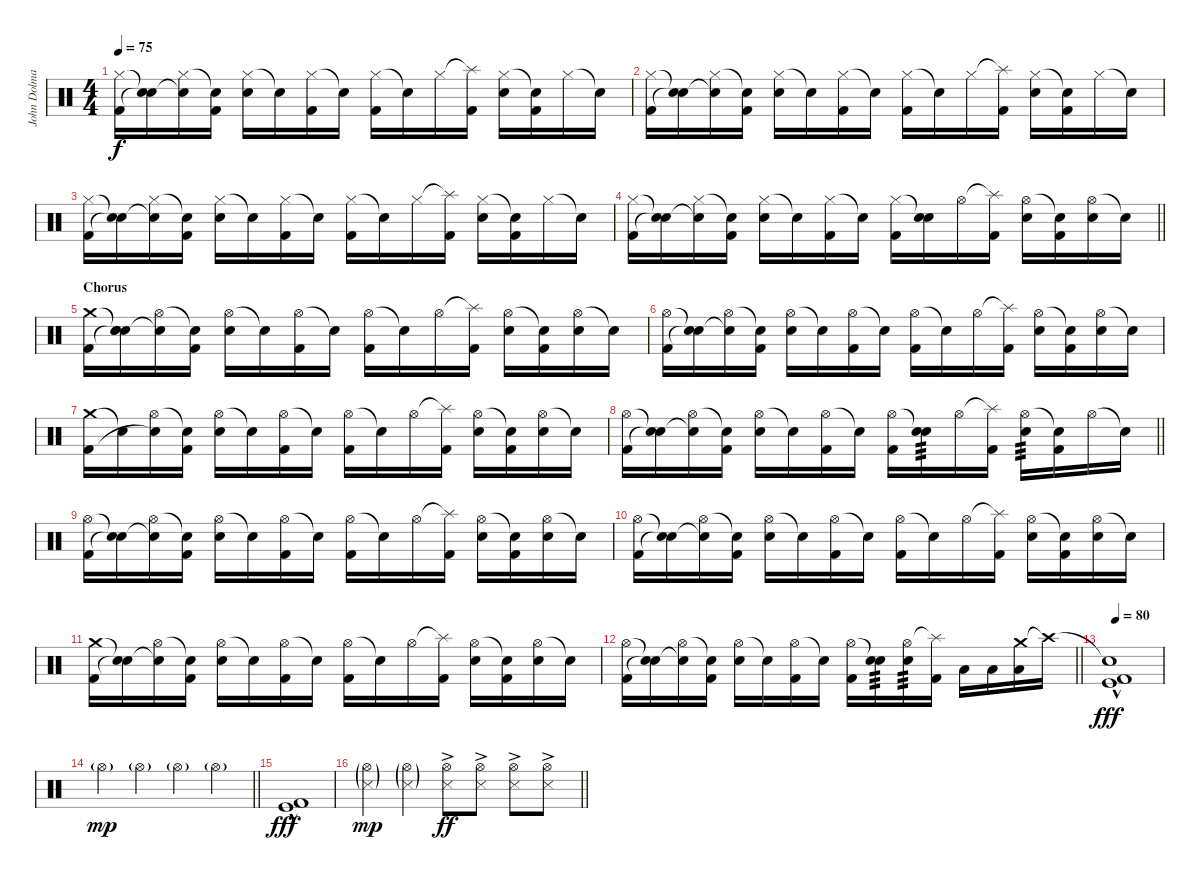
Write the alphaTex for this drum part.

\track ("John Dolmayan (drums)" "John Dolma") {instrument percussion}
\staff
\articulation defaults
\ts (4 4)
\tempo 75
\clef neutral
\ks c
("Hi-Hat (closed)" "Kick (hit) 2").16{dy f} ("Snare (hit)"{t} "Snare (hit)"{t}).16 ("Hi-Hat (closed)" "Snare (hit)"{t}).16 ("Snare (hit)"{t} "Kick (hit) 2").16 ("Hi-Hat (closed)" "Electric Snare (hit)").16 "Snare (hit)"{t}.16 ("Hi-Hat (closed)" "Kick (hit) 2").16 "Snare (hit)"{t}.16 ("Hi-Hat (closed)" "Kick (hit) 2").16 "Snare (hit)"{t}.16 "Hi-Hat (closed)".16 ("Splash (hit)"{t} "Kick (hit) 2").16 ("Hi-Hat (closed)" "Electric Snare (hit)").16 ("Snare (hit)"{t} "Kick (hit) 2").16 "Hi-Hat (closed)".16 "Snare (hit)"{t}.16 |
("Hi-Hat (closed)" "Kick (hit) 2").16 ("Snare (hit)"{t} "Snare (hit)"{t}).16 ("Hi-Hat (closed)" "Snare (hit)"{t}).16 ("Snare (hit)"{t} "Kick (hit) 2").16 ("Hi-Hat (closed)" "Electric Snare (hit)").16 "Snare (hit)"{t}.16 ("Hi-Hat (closed)" "Kick (hit) 2").16 "Snare (hit)"{t}.16 ("Hi-Hat (closed)" "Kick (hit) 2").16 "Snare (hit)"{t}.16 "Hi-Hat (closed)".16 ("Splash (hit)"{t} "Kick (hit) 2").16 ("Hi-Hat (closed)" "Electric Snare (hit)").16 ("Snare (hit)"{t} "Kick (hit) 2").16 "Hi-Hat (closed)".16 "Snare (hit)"{t}.16 |
("Hi-Hat (closed)" "Kick (hit) 2").16 ("Snare (hit)"{t} "Snare (hit)"{t}).16 ("Hi-Hat (closed)" "Snare (hit)"{t}).16 ("Snare (hit)"{t} "Kick (hit) 2").16 ("Hi-Hat (closed)" "Electric Snare (hit)").16 "Snare (hit)"{t}.16 ("Hi-Hat (closed)" "Kick (hit) 2").16 "Snare (hit)"{t}.16 ("Hi-Hat (closed)" "Kick (hit) 2").16 "Snare (hit)"{t}.16 "Hi-Hat (closed)".16 ("Splash (hit)"{t} "Kick (hit) 2").16 ("Hi-Hat (closed)" "Electric Snare (hit)").16 ("Snare (hit)"{t} "Kick (hit) 2").16 "Hi-Hat (closed)".16 "Snare (hit)"{t}.16 |
\barLineRight lightlight
("Hi-Hat (closed)" "Kick (hit) 2").16 ("Snare (hit)"{t} "Snare (hit)"{t}).16 ("Hi-Hat (closed)" "Snare (hit)"{t}).16 ("Snare (hit)"{t} "Kick (hit) 2").16 ("Hi-Hat (closed)" "Electric Snare (hit)").16 "Snare (hit)"{t}.16 ("Hi-Hat (closed)" "Kick (hit) 2").16 "Snare (hit)"{t}.16 ("Hi-Hat (closed)" "Kick (hit) 2").16 ("Snare (hit)"{t} "Electric Snare (hit)").16 "Hi-Hat (open)".16 ("Splash (hit)"{t} "Kick (hit) 2").16 ("Hi-Hat (open)" "Electric Snare (hit)").16 ("Snare (hit)"{t} "Kick (hit) 2").16 ("Hi-Hat (open)" "Electric Snare (hit)").16 "Snare (hit)"{t}.16 |
\section ("" "Chorus")
("Crash medium (hit)" "Kick (hit) 2").16 ("Snare (hit)"{t} "Snare (hit)"{t} "Snare (hit)").16 ("Hi-Hat (open)" "Snare (hit)"{t}).16 ("Snare (hit)"{t} "Kick (hit) 2").16 ("Hi-Hat (open)" "Electric Snare (hit)").16 "Snare (hit)"{t}.16 ("Hi-Hat (open)" "Kick (hit) 2").16 "Snare (hit)"{t}.16 ("Hi-Hat (open)" "Kick (hit) 2").16 "Snare (hit)"{t}.16 "Hi-Hat (open)".16 ("Splash (hit)"{t} "Kick (hit) 2").16 ("Hi-Hat (open)" "Electric Snare (hit)").16 ("Snare (hit)"{t} "Kick (hit) 2").16 ("Hi-Hat (open)" "Electric Snare (hit)").16 "Snare (hit)"{t}.16 |
("Hi-Hat (open)" "Kick (hit) 2").16 ("Snare (hit)"{t} "Snare (hit)"{t}).16 ("Hi-Hat (open)" "Snare (hit)"{t}).16 ("Snare (hit)"{t} "Kick (hit) 2").16 ("Hi-Hat (open)" "Electric Snare (hit)").16 "Snare (hit)"{t}.16 ("Hi-Hat (open)" "Kick (hit) 2").16 "Snare (hit)"{t}.16 ("Hi-Hat (open)" "Kick (hit) 2").16 "Snare (hit)"{t}.16 "Hi-Hat (open)".16 ("Splash (hit)"{t} "Kick (hit) 2").16 ("Hi-Hat (open)" "Electric Snare (hit)").16 ("Snare (hit)"{t} "Kick (hit) 2").16 ("Hi-Hat (open)" "Electric Snare (hit)").16 "Snare (hit)"{t}.16 |
("Crash medium (hit)" "Kick (hit) 2").16 "Snare (hit)"{t}.16 ("Hi-Hat (open)" "Snare (hit)"{t}).16 ("Snare (hit)"{t} "Kick (hit) 2").16 ("Hi-Hat (open)" "Electric Snare (hit)").16 "Snare (hit)"{t}.16 ("Hi-Hat (open)" "Kick (hit) 2").16 "Snare (hit)"{t}.16 ("Hi-Hat (open)" "Kick (hit) 2").16 "Snare (hit)"{t}.16 "Hi-Hat (open)".16 ("Splash (hit)"{t} "Kick (hit) 2").16 ("Hi-Hat (open)" "Electric Snare (hit)").16 ("Snare (hit)"{t} "Kick (hit) 2").16 ("Hi-Hat (open)" "Electric Snare (hit)").16 "Snare (hit)"{t}.16 |
\barLineRight lightlight
("Hi-Hat (open)" "Kick (hit) 2").16 ("Snare (hit)"{t} "Snare (hit)"{t}).16 ("Hi-Hat (open)" "Snare (hit)"{t}).16 ("Snare (hit)"{t} "Kick (hit) 2").16 ("Hi-Hat (open)" "Electric Snare (hit)").16 "Snare (hit)"{t}.16 ("Hi-Hat (open)" "Kick (hit) 2").16 "Snare (hit)"{t}.16 ("Hi-Hat (open)" "Kick (hit) 2").16 ("Snare (hit)"{t} "Electric Snare (hit)").16{tp 3} "Hi-Hat (open)".16 ("Splash (hit)"{t} "Kick (hit) 2").16 ("Hi-Hat (open)" "Electric Snare (hit)").16{tp 3} ("Snare (hit)"{t} "Kick (hit) 2").16 "Hi-Hat (open)".16 "Snare (hit)"{t}.16 |
("Hi-Hat (open)" "Kick (hit) 2").16 ("Snare (hit)"{t} "Snare (hit)"{t}).16 ("Hi-Hat (open)" "Snare (hit)"{t}).16 ("Snare (hit)"{t} "Kick (hit) 2").16 ("Hi-Hat (open)" "Electric Snare (hit)").16 "Snare (hit)"{t}.16 ("Hi-Hat (open)" "Kick (hit) 2").16 "Snare (hit)"{t}.16 ("Hi-Hat (open)" "Kick (hit) 2").16 "Snare (hit)"{t}.16 "Hi-Hat (open)".16 ("Splash (hit)"{t} "Kick (hit) 2").16 ("Hi-Hat (open)" "Electric Snare (hit)").16 ("Snare (hit)"{t} "Kick (hit) 2").16 ("Hi-Hat (open)" "Electric Snare (hit)").16 "Snare (hit)"{t}.16 |
("Hi-Hat (open)" "Kick (hit) 2").16 ("Snare (hit)"{t} "Snare (hit)"{t}).16 ("Hi-Hat (open)" "Snare (hit)"{t}).16 ("Snare (hit)"{t} "Kick (hit) 2").16 ("Hi-Hat (open)" "Electric Snare (hit)").16 "Snare (hit)"{t}.16 ("Hi-Hat (open)" "Kick (hit) 2").16 "Snare (hit)"{t}.16 ("Hi-Hat (open)" "Kick (hit) 2").16 "Snare (hit)"{t}.16 "Hi-Hat (open)".16 ("Splash (hit)"{t} "Kick (hit) 2").16 ("Hi-Hat (open)" "Electric Snare (hit)").16 ("Snare (hit)"{t} "Kick (hit) 2").16 ("Hi-Hat (open)" "Electric Snare (hit)").16 "Snare (hit)"{t}.16 |
("Crash medium (hit)" "Kick (hit) 2").16 ("Snare (hit)"{t} "Snare (hit)"{t}).16 ("Hi-Hat (open)" "Snare (hit)"{t}).16 ("Snare (hit)"{t} "Kick (hit) 2").16 ("Hi-Hat (open)" "Electric Snare (hit)").16 "Snare (hit)"{t}.16 ("Hi-Hat (open)" "Kick (hit) 2").16 "Snare (hit)"{t}.16 ("Hi-Hat (open)" "Kick (hit) 2").16 "Snare (hit)"{t}.16 "Hi-Hat (open)".16 ("Splash (hit)"{t} "Kick (hit) 2").16 ("Hi-Hat (open)" "Electric Snare (hit)").16 ("Snare (hit)"{t} "Kick (hit) 2").16 ("Hi-Hat (open)" "Electric Snare (hit)").16 "Snare (hit)"{t}.16 |
\barLineRight lightlight
("Hi-Hat (open)" "Kick (hit) 2").16 ("Snare (hit)"{t} "Snare (hit)"{t}).16 ("Hi-Hat (open)" "Snare (hit)"{t}).16 ("Snare (hit)"{t} "Kick (hit) 2").16 ("Hi-Hat (open)" "Electric Snare (hit)").16 "Snare (hit)"{t}.16 ("Hi-Hat (open)" "Kick (hit) 2").16 "Snare (hit)"{t}.16 ("Hi-Hat (open)" "Kick (hit) 2").16 ("Snare (hit)"{t} "Electric Snare (hit)").16{tp 3} ("Hi-Hat (open)" "Electric Snare (hit)").16{tp 3} ("Splash (hit)"{t} "Kick (hit) 2").16 "Low Tom (hit)".16 "Low Tom (hit)".16 ("Crash medium (hit)" "Low Tom (hit)").16 "Crash high (hit)"{t}.16 |
\tempo 80
("Snare (hit)"{t} "Kick (hit)"{hac} "Kick (hit) 2"{hac}).1{dy fff volume 16} |
\barLineRight lightlight "Hi-Hat (open)"{g}.4{dy mp} "Hi-Hat (open)"{g}.4 "Hi-Hat (open)"{g}.4 "Hi-Hat (open)"{g}.4
|
("Kick (hit)"{hac} "Kick (hit) 2"{hac}).1{dy fff} |
\barLineRight lightlight
("Hi-Hat (open)"{g} "Snare (side stick) 3"{g}).4{dy mp} ("Hi-Hat (open)"{g} "Snare (side stick) 3"{g}).4 ("Hi-Hat (open)"{ac} "Snare (side stick) 3"{ac}).8{dy ff} ("Hi-Hat (open)"{ac} "Snare (side stick) 3"{ac}).8 ("Hi-Hat (open)"{ac} "Snare (side stick) 3"{ac}).8 ("Hi-Hat (open)"{ac} "Snare (side stick) 3"{ac}).8
